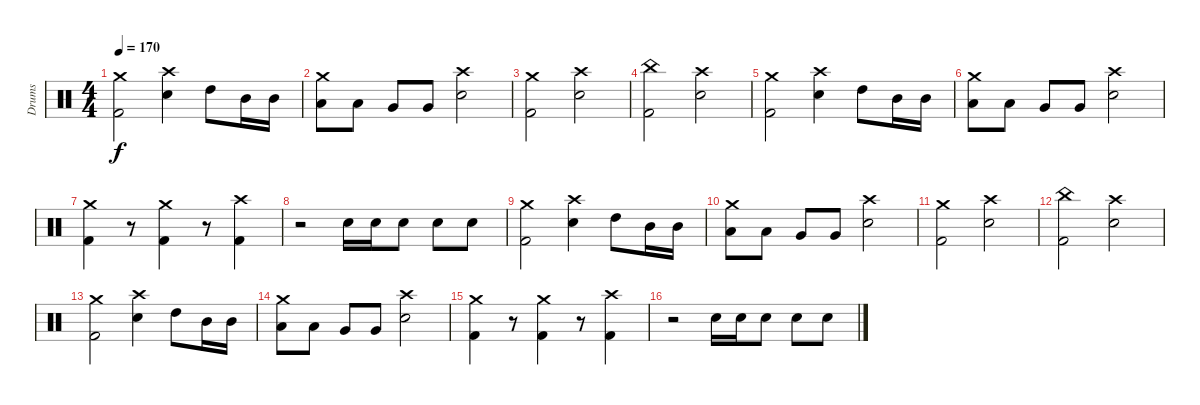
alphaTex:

\track ("Drums" "Drums") {instrument percussion}
\staff {score}
\articulation defaults
\ts (4 4)
\tempo 170
\clef neutral
\ks c
("Crash medium (hit)" "Kick (hit) 2").2{dy f} ("Crash high (hit)" "Electric Snare (hit)").4 "High Tom (hit)".8 "Mid Tom (hit)".16 "Mid Tom (hit)".16 |
("Crash medium (hit)" "Low Tom (hit)").8 "Low Tom (hit)".8 "Very Low Tom (hit)".8 "Very Low Tom (hit)".8 ("Crash high (hit)" "Electric Snare (hit)").2 |
("Crash medium (hit)" "Kick (hit) 2").2 ("Crash high (hit)" "Electric Snare (hit)").2 |
("China (hit)" "Kick (hit) 2").2 ("Crash high (hit)" "Electric Snare (hit)").2 |
("Crash medium (hit)" "Kick (hit) 2").2 ("Crash high (hit)" "Electric Snare (hit)").4 "High Tom (hit)".8 "Mid Tom (hit)".16 "Mid Tom (hit)".16 |
("Crash medium (hit)" "Low Tom (hit)").8 "Low Tom (hit)".8 "Very Low Tom (hit)".8 "Very Low Tom (hit)".8 ("Crash high (hit)" "Electric Snare (hit)").2 |
("Crash medium (hit)" "Kick (hit) 2").4 r.8{volume 0} ("Crash medium (hit)" "Kick (hit) 2").4{volume 10} r.8{volume 0} ("Crash high (hit)" "Kick (hit) 2").4{volume 10} |
r.2 "Electric Snare (hit)".16 "Electric Snare (hit)".16 "Electric Snare (hit)".8 "Electric Snare (hit)".8 "Electric Snare (hit)".8 |
("Crash medium (hit)" "Kick (hit) 2").2 ("Crash high (hit)" "Electric Snare (hit)").4 "High Tom (hit)".8 "Mid Tom (hit)".16 "Mid Tom (hit)".16 |
("Crash medium (hit)" "Low Tom (hit)").8 "Low Tom (hit)".8 "Very Low Tom (hit)".8 "Very Low Tom (hit)".8 ("Crash high (hit)" "Electric Snare (hit)").2 |
("Crash medium (hit)" "Kick (hit) 2").2 ("Crash high (hit)" "Electric Snare (hit)").2 |
("China (hit)" "Kick (hit) 2").2 ("Crash high (hit)" "Electric Snare (hit)").2 |
("Crash medium (hit)" "Kick (hit) 2").2 ("Crash high (hit)" "Electric Snare (hit)").4 "High Tom (hit)".8 "Mid Tom (hit)".16 "Mid Tom (hit)".16 |
("Crash medium (hit)" "Low Tom (hit)").8 "Low Tom (hit)".8 "Very Low Tom (hit)".8 "Very Low Tom (hit)".8 ("Crash high (hit)" "Electric Snare (hit)").2 |
("Crash medium (hit)" "Kick (hit) 2").4 r.8{volume 0} ("Crash medium (hit)" "Kick (hit) 2").4{volume 10} r.8{volume 0} ("Crash high (hit)" "Kick (hit) 2").4{volume 10} |
r.2 "Electric Snare (hit)".16 "Electric Snare (hit)".16 "Electric Snare (hit)".8 "Electric Snare (hit)".8 "Electric Snare (hit)".8
